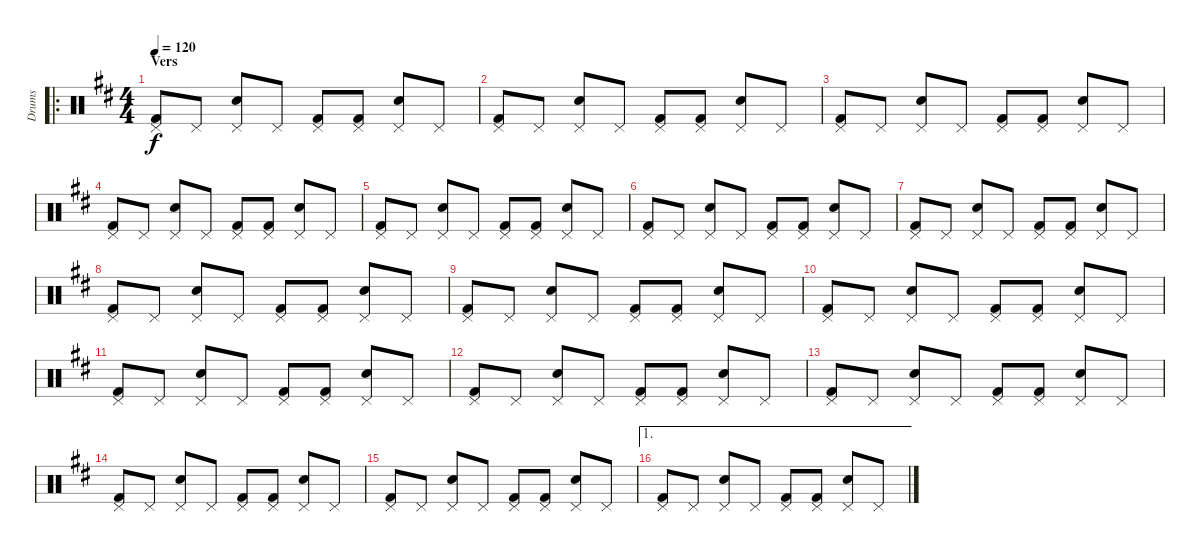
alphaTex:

\track ("Drums" "Drums") {instrument percussion}
\staff {score}
\articulation defaults
\ro
\ts (4 4)
\section ("" "Vers")
\tempo 120
\clef neutral
\ks d
("Pedal Hi-Hat (hit)" "Kick (hit) 2").8{dy f} "Pedal Hi-Hat (hit)".8 ("Pedal Hi-Hat (hit)" "Electric Snare (hit)").8 "Pedal Hi-Hat (hit)".8 ("Pedal Hi-Hat (hit)" "Kick (hit) 2").8 ("Pedal Hi-Hat (hit)" "Kick (hit) 2").8 ("Pedal Hi-Hat (hit)" "Electric Snare (hit)").8 "Pedal Hi-Hat (hit)".8 |
("Pedal Hi-Hat (hit)" "Kick (hit) 2").8 "Pedal Hi-Hat (hit)".8 ("Pedal Hi-Hat (hit)" "Electric Snare (hit)").8 "Pedal Hi-Hat (hit)".8 ("Pedal Hi-Hat (hit)" "Kick (hit) 2").8 ("Pedal Hi-Hat (hit)" "Kick (hit) 2").8 ("Pedal Hi-Hat (hit)" "Electric Snare (hit)").8 "Pedal Hi-Hat (hit)".8 |
("Pedal Hi-Hat (hit)" "Kick (hit) 2").8 "Pedal Hi-Hat (hit)".8 ("Pedal Hi-Hat (hit)" "Electric Snare (hit)").8 "Pedal Hi-Hat (hit)".8 ("Pedal Hi-Hat (hit)" "Kick (hit) 2").8 ("Pedal Hi-Hat (hit)" "Kick (hit) 2").8 ("Pedal Hi-Hat (hit)" "Electric Snare (hit)").8 "Pedal Hi-Hat (hit)".8 |
("Pedal Hi-Hat (hit)" "Kick (hit) 2").8 "Pedal Hi-Hat (hit)".8 ("Pedal Hi-Hat (hit)" "Electric Snare (hit)").8 "Pedal Hi-Hat (hit)".8 ("Pedal Hi-Hat (hit)" "Kick (hit) 2").8 ("Pedal Hi-Hat (hit)" "Kick (hit) 2").8 ("Pedal Hi-Hat (hit)" "Electric Snare (hit)").8 "Pedal Hi-Hat (hit)".8 |
("Pedal Hi-Hat (hit)" "Kick (hit) 2").8 "Pedal Hi-Hat (hit)".8 ("Pedal Hi-Hat (hit)" "Electric Snare (hit)").8 "Pedal Hi-Hat (hit)".8 ("Pedal Hi-Hat (hit)" "Kick (hit) 2").8 ("Pedal Hi-Hat (hit)" "Kick (hit) 2").8 ("Pedal Hi-Hat (hit)" "Electric Snare (hit)").8 "Pedal Hi-Hat (hit)".8 |
("Pedal Hi-Hat (hit)" "Kick (hit) 2").8 "Pedal Hi-Hat (hit)".8 ("Pedal Hi-Hat (hit)" "Electric Snare (hit)").8 "Pedal Hi-Hat (hit)".8 ("Pedal Hi-Hat (hit)" "Kick (hit) 2").8 ("Pedal Hi-Hat (hit)" "Kick (hit) 2").8 ("Pedal Hi-Hat (hit)" "Electric Snare (hit)").8 "Pedal Hi-Hat (hit)".8 |
("Pedal Hi-Hat (hit)" "Kick (hit) 2").8 "Pedal Hi-Hat (hit)".8 ("Pedal Hi-Hat (hit)" "Electric Snare (hit)").8 "Pedal Hi-Hat (hit)".8 ("Pedal Hi-Hat (hit)" "Kick (hit) 2").8 ("Pedal Hi-Hat (hit)" "Kick (hit) 2").8 ("Pedal Hi-Hat (hit)" "Electric Snare (hit)").8 "Pedal Hi-Hat (hit)".8 |
("Pedal Hi-Hat (hit)" "Kick (hit) 2").8 "Pedal Hi-Hat (hit)".8 ("Pedal Hi-Hat (hit)" "Electric Snare (hit)").8 "Pedal Hi-Hat (hit)".8 ("Pedal Hi-Hat (hit)" "Kick (hit) 2").8 ("Pedal Hi-Hat (hit)" "Kick (hit) 2").8 ("Pedal Hi-Hat (hit)" "Electric Snare (hit)").8 "Pedal Hi-Hat (hit)".8 |
("Pedal Hi-Hat (hit)" "Kick (hit) 2").8 "Pedal Hi-Hat (hit)".8 ("Pedal Hi-Hat (hit)" "Electric Snare (hit)").8 "Pedal Hi-Hat (hit)".8 ("Pedal Hi-Hat (hit)" "Kick (hit) 2").8 ("Pedal Hi-Hat (hit)" "Kick (hit) 2").8 ("Pedal Hi-Hat (hit)" "Electric Snare (hit)").8 "Pedal Hi-Hat (hit)".8 |
("Pedal Hi-Hat (hit)" "Kick (hit) 2").8 "Pedal Hi-Hat (hit)".8 ("Pedal Hi-Hat (hit)" "Electric Snare (hit)").8 "Pedal Hi-Hat (hit)".8 ("Pedal Hi-Hat (hit)" "Kick (hit) 2").8 ("Pedal Hi-Hat (hit)" "Kick (hit) 2").8 ("Pedal Hi-Hat (hit)" "Electric Snare (hit)").8 "Pedal Hi-Hat (hit)".8 |
("Pedal Hi-Hat (hit)" "Kick (hit) 2").8 "Pedal Hi-Hat (hit)".8 ("Pedal Hi-Hat (hit)" "Electric Snare (hit)").8 "Pedal Hi-Hat (hit)".8 ("Pedal Hi-Hat (hit)" "Kick (hit) 2").8 ("Pedal Hi-Hat (hit)" "Kick (hit) 2").8 ("Pedal Hi-Hat (hit)" "Electric Snare (hit)").8 "Pedal Hi-Hat (hit)".8 |
("Pedal Hi-Hat (hit)" "Kick (hit) 2").8 "Pedal Hi-Hat (hit)".8 ("Pedal Hi-Hat (hit)" "Electric Snare (hit)").8 "Pedal Hi-Hat (hit)".8 ("Pedal Hi-Hat (hit)" "Kick (hit) 2").8 ("Pedal Hi-Hat (hit)" "Kick (hit) 2").8 ("Pedal Hi-Hat (hit)" "Electric Snare (hit)").8 "Pedal Hi-Hat (hit)".8 |
("Pedal Hi-Hat (hit)" "Kick (hit) 2").8 "Pedal Hi-Hat (hit)".8 ("Pedal Hi-Hat (hit)" "Electric Snare (hit)").8 "Pedal Hi-Hat (hit)".8 ("Pedal Hi-Hat (hit)" "Kick (hit) 2").8 ("Pedal Hi-Hat (hit)" "Kick (hit) 2").8 ("Pedal Hi-Hat (hit)" "Electric Snare (hit)").8 "Pedal Hi-Hat (hit)".8 |
("Pedal Hi-Hat (hit)" "Kick (hit) 2").8 "Pedal Hi-Hat (hit)".8 ("Pedal Hi-Hat (hit)" "Electric Snare (hit)").8 "Pedal Hi-Hat (hit)".8 ("Pedal Hi-Hat (hit)" "Kick (hit) 2").8 ("Pedal Hi-Hat (hit)" "Kick (hit) 2").8 ("Pedal Hi-Hat (hit)" "Electric Snare (hit)").8 "Pedal Hi-Hat (hit)".8 |
("Pedal Hi-Hat (hit)" "Kick (hit) 2").8 "Pedal Hi-Hat (hit)".8 ("Pedal Hi-Hat (hit)" "Electric Snare (hit)").8 "Pedal Hi-Hat (hit)".8 ("Pedal Hi-Hat (hit)" "Kick (hit) 2").8 ("Pedal Hi-Hat (hit)" "Kick (hit) 2").8 ("Pedal Hi-Hat (hit)" "Electric Snare (hit)").8 "Pedal Hi-Hat (hit)".8 |
\ae 1
("Pedal Hi-Hat (hit)" "Kick (hit) 2").8 "Pedal Hi-Hat (hit)".8 ("Pedal Hi-Hat (hit)" "Electric Snare (hit)").8 "Pedal Hi-Hat (hit)".8 ("Pedal Hi-Hat (hit)" "Kick (hit) 2").8 ("Pedal Hi-Hat (hit)" "Kick (hit) 2").8 ("Pedal Hi-Hat (hit)" "Electric Snare (hit)").8 "Pedal Hi-Hat (hit)".8
